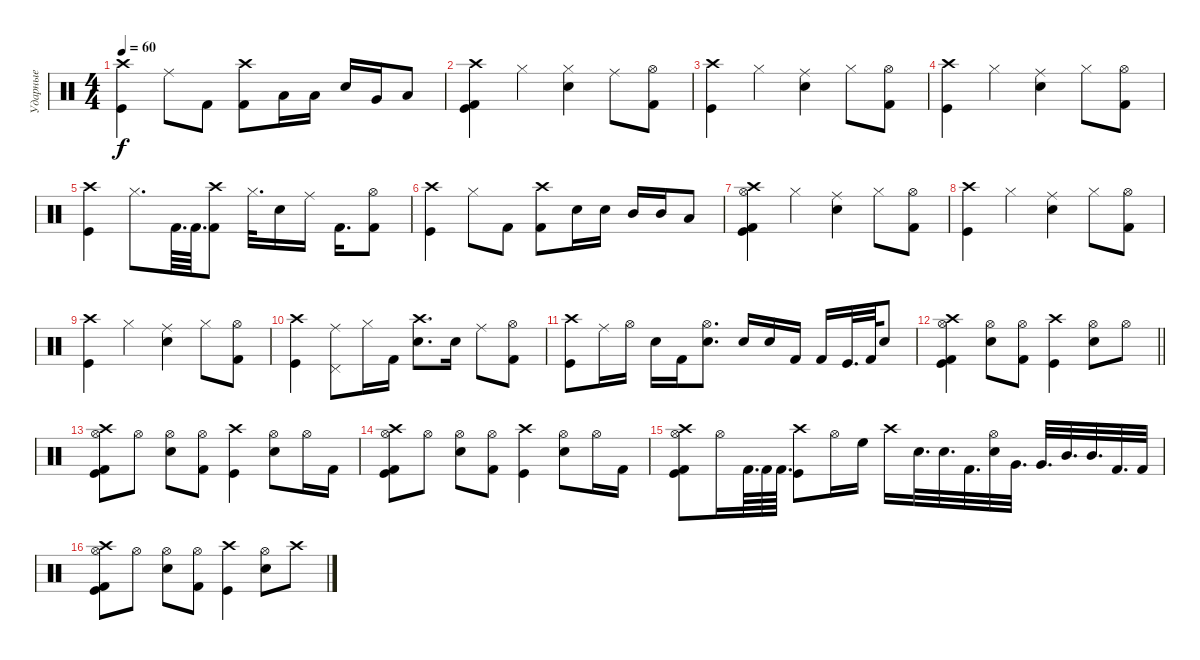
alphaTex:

\track ("Ударные" "Ударные") {instrument percussion}
\staff {score}
\articulation defaults
\ts (4 4)
\tempo 60
\clef neutral
\ks c
("Crash high (hit)" "Kick (hit)").4{dy f} "Ride (middle)".8 "Kick (hit) 2".8 ("Crash high (hit)" "Kick (hit) 2").8 "Low Tom (hit)".16 "Low Tom (hit)".16 "Snare (hit) 2".16 "Very Low Tom (hit)".16 "Low Tom (hit)".8 |
("Crash high (hit)" "Kick (hit)" "Kick (hit) 2").4 "Hi-Hat (closed)".4 ("Hi-Hat (closed)" "Snare (hit) 2").4 "Ride (middle)".8 ("Hi-Hat (open)" "Kick (hit) 2").8 |
("Crash high (hit)" "Kick (hit)").4 "Hi-Hat (closed)".4 ("Ride (middle)" "Snare (hit) 2").4 "Hi-Hat (closed)".8 ("Hi-Hat (open)" "Kick (hit) 2").8 |
("Crash high (hit)" "Kick (hit)").4 "Hi-Hat (closed)".4 ("Ride (middle)" "Snare (hit) 2").4 "Hi-Hat (closed)".8 ("Hi-Hat (open)" "Kick (hit) 2").8 |
("Crash high (hit)" "Kick (hit)").4 "Hi-Hat (closed)".8{d} "Kick (hit) 2".64{d} "Kick (hit) 2".64{d} ("Crash high (hit)" "Kick (hit) 2").8 "Hi-Hat (closed)".32{d} "Snare (hit) 2".16 "Ride (middle)".16 "Kick (hit) 2".16{d} ("Hi-Hat (open)" "Kick (hit) 2").8 |
("Crash high (hit)" "Kick (hit)").4 "Hi-Hat (closed)".8 "Kick (hit) 2".8 ("Crash high (hit)" "Kick (hit) 2").8 "Snare (hit) 2".16 "Snare (hit) 2".16 "Mid Tom (hit)".16 "Mid Tom (hit)".16 "Low Tom (hit)".8 |
("Hi-Hat (open)" "Kick (hit) 2" "Kick (hit)" "Crash high (hit)").4 "Hi-Hat (closed)".4 ("Ride (middle)" "Snare (hit) 2").4 "Hi-Hat (closed)".8 ("Hi-Hat (open)" "Kick (hit) 2").8 |
("Crash high (hit)" "Kick (hit)").4 "Hi-Hat (closed)".4 ("Ride (middle)" "Snare (hit) 2").4 "Hi-Hat (closed)".8 ("Hi-Hat (open)" "Kick (hit) 2").8 |
("Crash high (hit)" "Kick (hit)").4 "Hi-Hat (closed)".4 ("Ride (middle)" "Snare (hit) 2").4 "Hi-Hat (closed)".8 ("Hi-Hat (open)" "Kick (hit) 2").8 |
("Crash high (hit)" "Kick (hit)").4 ("Ride (middle)" "Pedal Hi-Hat (hit)").8 "Hi-Hat (closed)".16 "Kick (hit) 2".16 ("Crash high (hit)" "Snare (hit) 2").8{d} "Snare (hit) 2".16 "Ride (middle)".8 ("Hi-Hat (open)" "Kick (hit) 2").8 |
("Crash high (hit)" "Kick (hit)").8 "Ride (middle)".16 "Hi-Hat (open)".16 "Snare (hit) 2".16 "Kick (hit) 2".16 ("Hi-Hat (open)" "Snare (hit) 2").8{d} "Snare (hit) 2".16 "Snare (hit) 2".16 "Kick (hit) 2".16 "Kick (hit) 2".16 "Kick (hit)".32{d} "Kick (hit) 2".64 "Snare (hit) 2".8 |
\barLineRight lightlight
("Crash high (hit)" "Hi-Hat (open)" "Kick (hit) 2" "Kick (hit)").4 ("Hi-Hat (open)" "Snare (hit) 2").8 ("Hi-Hat (open)" "Kick (hit) 2").8 ("Crash high (hit)" "Kick (hit)").4 ("Hi-Hat (open)" "Snare (hit) 2").8 "Hi-Hat (open)".8 |
("Crash high (hit)" "Hi-Hat (open)" "Kick (hit) 2" "Kick (hit)").8 "Hi-Hat (open)".8 ("Hi-Hat (open)" "Snare (hit) 2").8 ("Hi-Hat (open)" "Kick (hit) 2").8 ("Crash high (hit)" "Kick (hit)").4 ("Hi-Hat (open)" "Snare (hit) 2").8 "Hi-Hat (open)".16 "Kick (hit) 2".16 |
("Crash high (hit)" "Hi-Hat (open)" "Kick (hit) 2" "Kick (hit)").8 "Hi-Hat (open)".8 ("Hi-Hat (open)" "Snare (hit) 2").8 ("Hi-Hat (open)" "Kick (hit) 2").8 ("Crash high (hit)" "Kick (hit)").4 ("Hi-Hat (open)" "Snare (hit) 2").8 "Hi-Hat (open)".16 "Kick (hit) 2".16 |
("Crash high (hit)" "Hi-Hat (open)" "Kick (hit) 2" "Kick (hit)").8 "Hi-Hat (open)".16 "Kick (hit) 2".64{d} "Kick (hit) 2".64 "Kick (hit) 2".64{d} ("Crash high (hit)" "Kick (hit)").8 "Hi-Hat (open)".16 "High Floor Tom (hit)".16 "Crash high (hit)".16 "Snare (hit) 2".32{d} "Snare (hit) 2".32{d} "Kick (hit) 2".32{d} ("Hi-Hat (open)" "Snare (hit) 2").32 "Very Low Tom (hit)".32{d} "Very Low Tom (hit)".32{d} "Mid Tom (hit)".32{d} "Mid Tom (hit)".32{d} "Kick (hit) 2".32{d} "Kick (hit) 2".32 |
("Crash high (hit)" "Hi-Hat (open)" "Kick (hit) 2" "Kick (hit)").8 "Hi-Hat (open)".8 ("Hi-Hat (open)" "Snare (hit) 2").8 ("Hi-Hat (open)" "Kick (hit) 2").8 ("Crash high (hit)" "Kick (hit)").4 ("Hi-Hat (open)" "Snare (hit) 2").8 "Crash high (hit)".8
